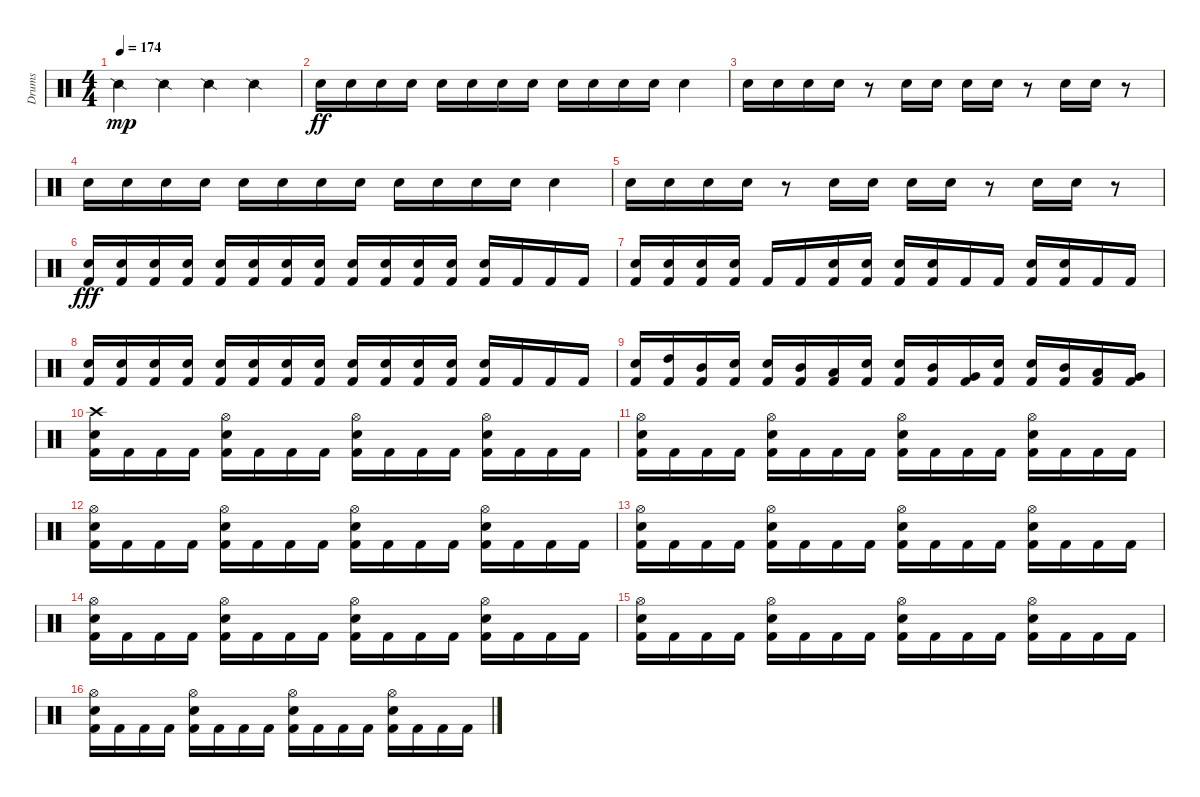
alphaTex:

\track ("Drums" "Drums") {instrument percussion}
\staff {score}
\articulation defaults
\ts (4 4)
\tempo 174
\clef neutral
\ks c "Snare (side stick) 2".4{dy mp} "Snare (side stick) 2".4 "Snare (side stick) 2".4 "Snare (side stick) 2".4
|
"Snare (hit) 2".16{dy ff} "Snare (hit) 2".16 "Snare (hit) 2".16 "Snare (hit) 2".16 "Snare (hit) 2".16 "Snare (hit) 2".16 "Snare (hit) 2".16 "Snare (hit) 2".16 "Snare (hit) 2".16 "Snare (hit) 2".16 "Snare (hit) 2".16 "Snare (hit) 2".16 "Snare (hit) 2".4 |
"Snare (hit) 2".16 "Snare (hit) 2".16 "Snare (hit) 2".16 "Snare (hit) 2".16 r.8 "Snare (hit) 2".16 "Snare (hit) 2".16 "Snare (hit) 2".16 "Snare (hit) 2".16 r.8 "Snare (hit) 2".16 "Snare (hit) 2".16 r.8 |
"Snare (hit) 2".16 "Snare (hit) 2".16 "Snare (hit) 2".16 "Snare (hit) 2".16 "Snare (hit) 2".16 "Snare (hit) 2".16 "Snare (hit) 2".16 "Snare (hit) 2".16 "Snare (hit) 2".16 "Snare (hit) 2".16 "Snare (hit) 2".16 "Snare (hit) 2".16 "Snare (hit) 2".4 |
"Snare (hit) 2".16 "Snare (hit) 2".16 "Snare (hit) 2".16 "Snare (hit) 2".16 r.8 "Snare (hit) 2".16 "Snare (hit) 2".16 "Snare (hit) 2".16 "Snare (hit) 2".16 r.8 "Snare (hit) 2".16 "Snare (hit) 2".16 r.8 |
("Snare (hit) 2" "Kick (hit) 2").16{dy fff} ("Snare (hit) 2" "Kick (hit) 2").16 ("Snare (hit) 2" "Kick (hit) 2").16 ("Snare (hit) 2" "Kick (hit) 2").16 ("Snare (hit) 2" "Kick (hit) 2").16 ("Snare (hit) 2" "Kick (hit) 2").16 ("Snare (hit) 2" "Kick (hit) 2").16 ("Snare (hit) 2" "Kick (hit) 2").16 ("Snare (hit) 2" "Kick (hit) 2").16 ("Snare (hit) 2" "Kick (hit) 2").16 ("Snare (hit) 2" "Kick (hit) 2").16 ("Snare (hit) 2" "Kick (hit) 2").16 ("Snare (hit) 2" "Kick (hit) 2").16 "Kick (hit) 2".16 "Kick (hit) 2".16 "Kick (hit) 2".16 |
("Snare (hit) 2" "Kick (hit) 2").16 ("Snare (hit) 2" "Kick (hit) 2").16 ("Snare (hit) 2" "Kick (hit) 2").16 ("Snare (hit) 2" "Kick (hit) 2").16 "Kick (hit) 2".16 "Kick (hit) 2".16 ("Snare (hit) 2" "Kick (hit) 2").16 ("Snare (hit) 2" "Kick (hit) 2").16 ("Snare (hit) 2" "Kick (hit) 2").16 ("Snare (hit) 2" "Kick (hit) 2").16 "Kick (hit) 2".16 "Kick (hit) 2".16 ("Snare (hit) 2" "Kick (hit) 2").16 ("Snare (hit) 2" "Kick (hit) 2").16 "Kick (hit) 2".16 "Kick (hit) 2".16 |
("Snare (hit) 2" "Kick (hit) 2").16 ("Snare (hit) 2" "Kick (hit) 2").16 ("Snare (hit) 2" "Kick (hit) 2").16 ("Snare (hit) 2" "Kick (hit) 2").16 ("Snare (hit) 2" "Kick (hit) 2").16 ("Snare (hit) 2" "Kick (hit) 2").16 ("Snare (hit) 2" "Kick (hit) 2").16 ("Snare (hit) 2" "Kick (hit) 2").16 ("Snare (hit) 2" "Kick (hit) 2").16 ("Snare (hit) 2" "Kick (hit) 2").16 ("Snare (hit) 2" "Kick (hit) 2").16 ("Snare (hit) 2" "Kick (hit) 2").16 ("Snare (hit) 2" "Kick (hit) 2").16 "Kick (hit) 2".16 "Kick (hit) 2".16 "Kick (hit) 2".16 |
("Snare (hit) 2" "Kick (hit) 2").16 ("High Tom (hit)" "Kick (hit) 2").16 ("Mid Tom (hit)" "Kick (hit) 2").16 ("Snare (hit) 2" "Kick (hit) 2").16 ("Snare (hit) 2" "Kick (hit) 2").16 ("Mid Tom (hit)" "Kick (hit) 2").16 ("Low Tom (hit)" "Kick (hit) 2").16 ("Snare (hit) 2" "Kick (hit) 2").16 ("Snare (hit) 2" "Kick (hit) 2").16 ("Mid Tom (hit)" "Kick (hit) 2").16 ("Very Low Tom (hit)" "Kick (hit) 2").16 ("Snare (hit) 2" "Kick (hit) 2").16 ("Snare (hit) 2" "Kick (hit) 2").16 ("Mid Tom (hit)" "Kick (hit) 2").16 ("Low Tom (hit)" "Kick (hit) 2").16 ("Very Low Tom (hit)" "Kick (hit) 2").16 |
("Crash high (hit)" "Snare (hit) 2" "Kick (hit) 2").16 "Kick (hit) 2".16 "Kick (hit) 2".16 "Kick (hit) 2".16 ("Hi-Hat (open)" "Snare (hit) 2" "Kick (hit) 2").16 "Kick (hit) 2".16 "Kick (hit) 2".16 "Kick (hit) 2".16 ("Hi-Hat (open)" "Snare (hit) 2" "Kick (hit) 2").16 "Kick (hit) 2".16 "Kick (hit) 2".16 "Kick (hit) 2".16 ("Hi-Hat (open)" "Snare (hit) 2" "Kick (hit) 2").16 "Kick (hit) 2".16 "Kick (hit) 2".16 "Kick (hit) 2".16 |
("Hi-Hat (open)" "Snare (hit) 2" "Kick (hit) 2").16 "Kick (hit) 2".16 "Kick (hit) 2".16 "Kick (hit) 2".16 ("Hi-Hat (open)" "Snare (hit) 2" "Kick (hit) 2").16 "Kick (hit) 2".16 "Kick (hit) 2".16 "Kick (hit) 2".16 ("Hi-Hat (open)" "Snare (hit) 2" "Kick (hit) 2").16 "Kick (hit) 2".16 "Kick (hit) 2".16 "Kick (hit) 2".16 ("Hi-Hat (open)" "Snare (hit) 2" "Kick (hit) 2").16 "Kick (hit) 2".16 "Kick (hit) 2".16 "Kick (hit) 2".16 |
("Hi-Hat (open)" "Snare (hit) 2" "Kick (hit) 2").16 "Kick (hit) 2".16 "Kick (hit) 2".16 "Kick (hit) 2".16 ("Hi-Hat (open)" "Snare (hit) 2" "Kick (hit) 2").16 "Kick (hit) 2".16 "Kick (hit) 2".16 "Kick (hit) 2".16 ("Hi-Hat (open)" "Snare (hit) 2" "Kick (hit) 2").16 "Kick (hit) 2".16 "Kick (hit) 2".16 "Kick (hit) 2".16 ("Hi-Hat (open)" "Snare (hit) 2" "Kick (hit) 2").16 "Kick (hit) 2".16 "Kick (hit) 2".16 "Kick (hit) 2".16 |
("Hi-Hat (open)" "Snare (hit) 2" "Kick (hit) 2").16 "Kick (hit) 2".16 "Kick (hit) 2".16 "Kick (hit) 2".16 ("Hi-Hat (open)" "Snare (hit) 2" "Kick (hit) 2").16 "Kick (hit) 2".16 "Kick (hit) 2".16 "Kick (hit) 2".16 ("Hi-Hat (open)" "Snare (hit) 2" "Kick (hit) 2").16 "Kick (hit) 2".16 "Kick (hit) 2".16 "Kick (hit) 2".16 ("Hi-Hat (open)" "Snare (hit) 2" "Kick (hit) 2").16 "Kick (hit) 2".16 "Kick (hit) 2".16 "Kick (hit) 2".16 |
("Hi-Hat (open)" "Snare (hit) 2" "Kick (hit) 2").16 "Kick (hit) 2".16 "Kick (hit) 2".16 "Kick (hit) 2".16 ("Hi-Hat (open)" "Snare (hit) 2" "Kick (hit) 2").16 "Kick (hit) 2".16 "Kick (hit) 2".16 "Kick (hit) 2".16 ("Hi-Hat (open)" "Snare (hit) 2" "Kick (hit) 2").16 "Kick (hit) 2".16 "Kick (hit) 2".16 "Kick (hit) 2".16 ("Hi-Hat (open)" "Snare (hit) 2" "Kick (hit) 2").16 "Kick (hit) 2".16 "Kick (hit) 2".16 "Kick (hit) 2".16 |
("Hi-Hat (open)" "Snare (hit) 2" "Kick (hit) 2").16 "Kick (hit) 2".16 "Kick (hit) 2".16 "Kick (hit) 2".16 ("Hi-Hat (open)" "Snare (hit) 2" "Kick (hit) 2").16 "Kick (hit) 2".16 "Kick (hit) 2".16 "Kick (hit) 2".16 ("Hi-Hat (open)" "Snare (hit) 2" "Kick (hit) 2").16 "Kick (hit) 2".16 "Kick (hit) 2".16 "Kick (hit) 2".16 ("Hi-Hat (open)" "Snare (hit) 2" "Kick (hit) 2").16 "Kick (hit) 2".16 "Kick (hit) 2".16 "Kick (hit) 2".16 |
("Hi-Hat (open)" "Snare (hit) 2" "Kick (hit) 2").16 "Kick (hit) 2".16 "Kick (hit) 2".16 "Kick (hit) 2".16 ("Hi-Hat (open)" "Snare (hit) 2" "Kick (hit) 2").16 "Kick (hit) 2".16 "Kick (hit) 2".16 "Kick (hit) 2".16 ("Hi-Hat (open)" "Snare (hit) 2" "Kick (hit) 2").16 "Kick (hit) 2".16 "Kick (hit) 2".16 "Kick (hit) 2".16 ("Hi-Hat (open)" "Snare (hit) 2" "Kick (hit) 2").16 "Kick (hit) 2".16 "Kick (hit) 2".16 "Kick (hit) 2".16
